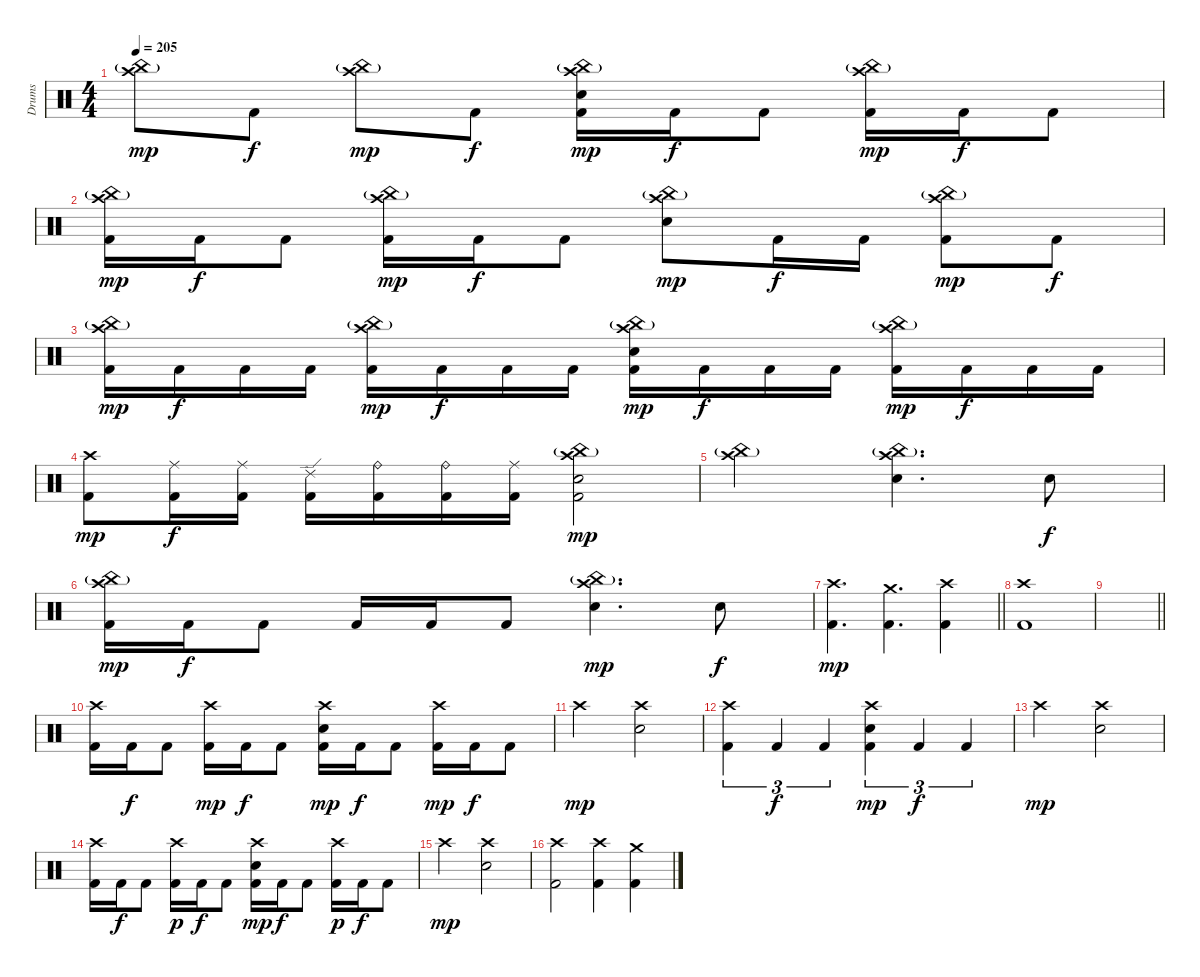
\track ("Drums" "Drums") {instrument percussion}
\staff {score}
\articulation defaults
\ts (4 4)
\tempo 205
\clef neutral
\ks c
("Crash high (hit)" "China (hit)"{g}).8{dy mp} "Kick (hit) 2".8{dy f} ("Crash high (hit)" "China (hit)"{g}).8{dy mp} "Kick (hit) 2".8{dy f} ("Crash high (hit)" "China (hit)"{g} "Electric Snare (hit)" "Kick (hit) 2").16{dy mp} "Kick (hit) 2".16{dy f} "Kick (hit) 2".8 ("Crash high (hit)" "China (hit)"{g} "Kick (hit) 2").16{dy mp} "Kick (hit) 2".16{dy f} "Kick (hit) 2".8 |
("Crash high (hit)" "China (hit)"{g} "Kick (hit) 2").16{dy mp} "Kick (hit) 2".16{dy f} "Kick (hit) 2".8 ("Crash high (hit)" "China (hit)"{g} "Kick (hit) 2").16{dy mp} "Kick (hit) 2".16{dy f} "Kick (hit) 2".8 ("Crash high (hit)" "China (hit)"{g} "Electric Snare (hit)").8{dy mp} "Kick (hit) 2".16{dy f} "Kick (hit) 2".16 ("Crash high (hit)" "China (hit)"{g} "Kick (hit) 2").8{dy mp} "Kick (hit) 2".8{dy f} |
("Crash high (hit)" "China (hit)"{g} "Kick (hit) 2").16{dy mp} "Kick (hit) 2".16{dy f} "Kick (hit) 2".16 "Kick (hit) 2".16 ("Crash high (hit)" "China (hit)"{g} "Kick (hit) 2").16{dy mp} "Kick (hit) 2".16{dy f} "Kick (hit) 2".16 "Kick (hit) 2".16 ("Crash high (hit)" "China (hit)"{g} "Electric Snare (hit)" "Kick (hit) 2").16{dy mp} "Kick (hit) 2".16{dy f} "Kick (hit) 2".16 "Kick (hit) 2".16 ("Crash high (hit)" "China (hit)"{g} "Kick (hit) 2").16{dy mp} "Kick (hit) 2".16{dy f} "Kick (hit) 2".16 "Kick (hit) 2".16 |
("Crash high (hit)" "Kick (hit) 2").8{dy mp} ("Ride (middle)" "Kick (hit) 2").16{dy f} ("Ride (middle)" "Kick (hit) 2").16 ("Ride (edge) 2" "Kick (hit) 2").16 ("Ride (bell)" "Kick (hit) 2").16 ("Ride (bell)" "Kick (hit) 2").16 ("Ride (middle)" "Kick (hit) 2").16 ("Crash high (hit)" "China (hit)"{g} "Electric Snare (hit)" "Kick (hit) 2").2{dy mp} |
("Crash high (hit)" "China (hit)"{g}).2 ("Crash high (hit)" "China (hit)"{g} "Electric Snare (hit)").4{d} "Electric Snare (hit)".8{dy f} |
("Crash high (hit)" "China (hit)"{g} "Kick (hit) 2").16{dy mp} "Kick (hit) 2".16{dy f} "Kick (hit) 2".8 "Kick (hit) 2".16 "Kick (hit) 2".16 "Kick (hit) 2".8 ("Crash high (hit)" "China (hit)"{g} "Electric Snare (hit)").4{d dy mp} "Electric Snare (hit)".8{dy f} |
\barLineRight lightlight
("Crash high (hit)" "Kick (hit) 2").4{d dy mp} ("Crash medium (hit)" "Kick (hit) 2").4{d} ("Crash high (hit)" "Kick (hit) 2").4 |
("Crash high (hit)" "Kick (hit) 2").1 |
\barLineRight lightlight
|
("Crash high (hit)" "Kick (hit) 2").16 "Kick (hit) 2".16{dy f} "Kick (hit) 2".8 ("Crash high (hit)" "Kick (hit) 2").16{dy mp} "Kick (hit) 2".16{dy f} "Kick (hit) 2".8 ("Crash high (hit)" "Electric Snare (hit)" "Kick (hit) 2").16{dy mp} "Kick (hit) 2".16{dy f} "Kick (hit) 2".8 ("Crash high (hit)" "Kick (hit) 2").16{dy mp} "Kick (hit) 2".16{dy f} "Kick (hit) 2".8 |
"Crash high (hit)".2{dy mp} ("Crash high (hit)" "Electric Snare (hit)").2 |
("Crash high (hit)" "Kick (hit) 2").4{tu (3 2)} "Kick (hit) 2".4{tu (3 2) dy f} "Kick (hit) 2".4{tu (3 2)} ("Crash high (hit)" "Electric Snare (hit)" "Kick (hit) 2").4{tu (3 2) dy mp} "Kick (hit) 2".4{tu (3 2) dy f} "Kick (hit) 2".4{tu (3 2)} |
"Crash high (hit)".2{dy mp} ("Crash high (hit)" "Electric Snare (hit)").2 |
("Crash high (hit)" "Kick (hit) 2").16 "Kick (hit) 2".16{dy f} "Kick (hit) 2".8 ("Crash high (hit)" "Kick (hit) 2").16{dy p} "Kick (hit) 2".16{dy f} "Kick (hit) 2".8 ("Crash high (hit)" "Electric Snare (hit)" "Kick (hit) 2").16{dy mp} "Kick (hit) 2".16{dy f} "Kick (hit) 2".8 ("Crash high (hit)" "Kick (hit) 2").16{dy p} "Kick (hit) 2".16{dy f} "Kick (hit) 2".8 |
"Crash high (hit)".2{dy mp} ("Crash high (hit)" "Electric Snare (hit)").2 |
("Crash high (hit)" "Kick (hit) 2").2 ("Crash high (hit)" "Kick (hit) 2").4 ("Crash medium (hit)" "Kick (hit) 2").4
